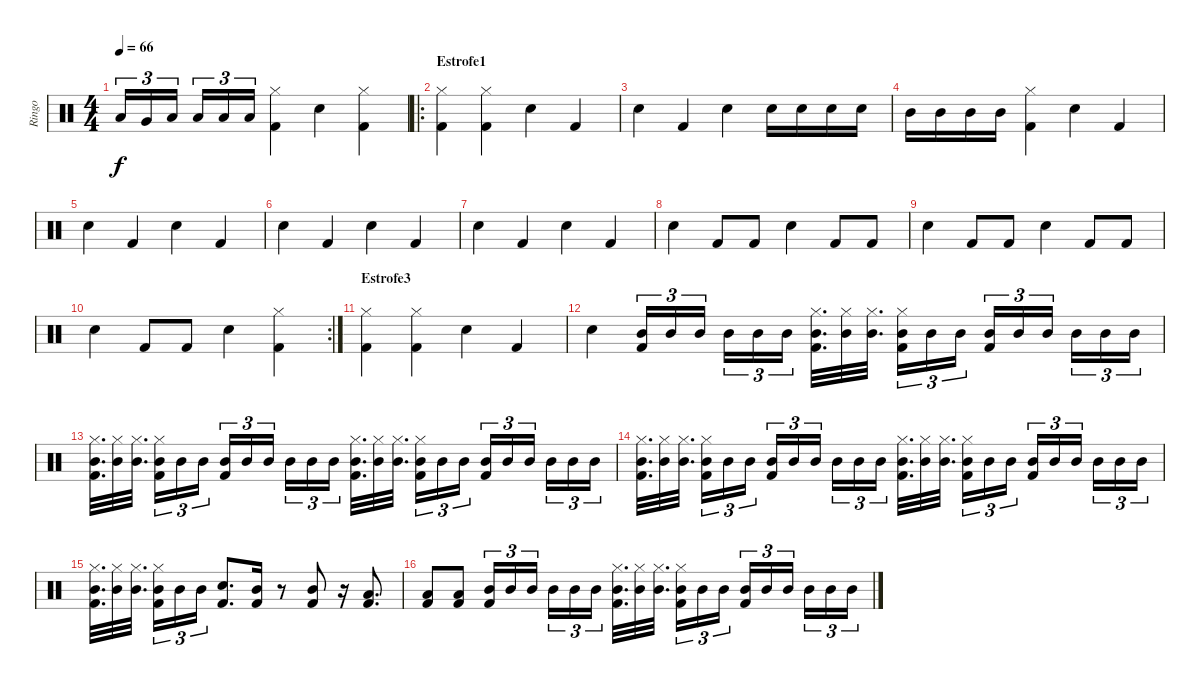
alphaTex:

\track ("Ringo" "Ringo") {instrument percussion}
\staff {score}
\articulation defaults
\ts (4 4)
\tempo 66
\clef neutral
\ks c "Low Floor Tom (hit)".16{tu (3 2) dy f} "Very Low Tom (hit)".16{tu (3 2)} "Low Tom (hit)".16{tu (3 2)} "Low Tom (hit)".16{tu (3 2)} "Low Tom (hit)".16{tu (3 2)} "Low Tom (hit)".16{tu (3 2)}
("Hi-Hat (closed)" "Kick (hit) 2").4 "Snare (hit) 2".4 ("Hi-Hat (closed)" "Kick (hit) 2").4 |
\ro
\section ("" "Estrofe1")
("Hi-Hat (closed)" "Kick (hit) 2").4 ("Hi-Hat (closed)" "Kick (hit) 2").4 "Snare (hit) 2".4 "Kick (hit) 2".4 |
"Snare (hit) 2".4 "Kick (hit) 2".4 "Snare (hit) 2".4 "Snare (hit) 2".16 "Snare (hit) 2".16 "Snare (hit) 2".16 "Snare (hit) 2".16 |
"Mid Tom (hit)".16 "Mid Tom (hit)".16 "Mid Tom (hit)".16 "Mid Tom (hit)".16 ("Hi-Hat (closed)" "Kick (hit) 2").4 "Snare (hit) 2".4 "Kick (hit) 2".4 |
"Snare (hit) 2".4 "Kick (hit) 2".4 "Snare (hit) 2".4 "Kick (hit) 2".4 |
"Snare (hit) 2".4 "Kick (hit) 2".4 "Snare (hit) 2".4 "Kick (hit) 2".4 |
"Snare (hit) 2".4 "Kick (hit) 2".4 "Snare (hit) 2".4 "Kick (hit) 2".4 |
"Snare (hit) 2".4 "Kick (hit) 2".8 "Kick (hit) 2".8 "Snare (hit) 2".4 "Kick (hit) 2".8 "Kick (hit) 2".8 |
"Snare (hit) 2".4 "Kick (hit) 2".8 "Kick (hit) 2".8 "Snare (hit) 2".4 "Kick (hit) 2".8 "Kick (hit) 2".8 |
\rc 2 "Snare (hit) 2".4 "Kick (hit) 2".8 "Kick (hit) 2".8 "Snare (hit) 2".4
("Hi-Hat (closed)" "Kick (hit) 2").4 |
\section ("" "Estrofe3")
("Hi-Hat (closed)" "Kick (hit) 2").4 ("Hi-Hat (closed)" "Kick (hit) 2").4 "Snare (hit) 2".4 "Kick (hit) 2".4 |
"Snare (hit) 2".4 ("Mid Tom (hit)" "Kick (hit) 2").16{tu (3 2)} "Mid Tom (hit)".16{tu (3 2)} "Mid Tom (hit)".16{tu (3 2)} "Mid Tom (hit)".16{tu (3 2)} "Mid Tom (hit)".16{tu (3 2)} "Mid Tom (hit)".16{tu (3 2)} ("Hi-Hat (closed)" "Mid Tom (hit)" "Kick (hit) 2").32{d} ("Hi-Hat (closed)" "Mid Tom (hit)").32 ("Hi-Hat (closed)" "Mid Tom (hit)").32{d} ("Hi-Hat (closed)" "Mid Tom (hit)" "Kick (hit) 2").16{tu (3 2)} "Mid Tom (hit)".16{tu (3 2)} "Mid Tom (hit)".16{tu (3 2)} ("Mid Tom (hit)" "Kick (hit) 2").16{tu (3 2)} "Mid Tom (hit)".16{tu (3 2)} "Mid Tom (hit)".16{tu (3 2)} "Mid Tom (hit)".16{tu (3 2)} "Mid Tom (hit)".16{tu (3 2)} "Mid Tom (hit)".16{tu (3 2)} |
("Hi-Hat (closed)" "Mid Tom (hit)" "Kick (hit) 2").32{d} ("Hi-Hat (closed)" "Mid Tom (hit)").32 ("Hi-Hat (closed)" "Mid Tom (hit)").32{d} ("Hi-Hat (closed)" "Mid Tom (hit)" "Kick (hit) 2").16{tu (3 2)} "Mid Tom (hit)".16{tu (3 2)} "Mid Tom (hit)".16{tu (3 2)} ("Mid Tom (hit)" "Kick (hit) 2").16{tu (3 2)} "Mid Tom (hit)".16{tu (3 2)} "Mid Tom (hit)".16{tu (3 2)} "Mid Tom (hit)".16{tu (3 2)} "Mid Tom (hit)".16{tu (3 2)} "Mid Tom (hit)".16{tu (3 2)} ("Hi-Hat (closed)" "Mid Tom (hit)" "Kick (hit) 2").32{d} ("Hi-Hat (closed)" "Mid Tom (hit)").32 ("Hi-Hat (closed)" "Mid Tom (hit)").32{d} ("Hi-Hat (closed)" "Mid Tom (hit)" "Kick (hit) 2").16{tu (3 2)} "Mid Tom (hit)".16{tu (3 2)} "Mid Tom (hit)".16{tu (3 2)} ("Mid Tom (hit)" "Kick (hit) 2").16{tu (3 2)} "Mid Tom (hit)".16{tu (3 2)} "Mid Tom (hit)".16{tu (3 2)} "Mid Tom (hit)".16{tu (3 2)} "Mid Tom (hit)".16{tu (3 2)} "Mid Tom (hit)".16{tu (3 2)} |
("Hi-Hat (closed)" "Mid Tom (hit)" "Kick (hit) 2").32{d} ("Hi-Hat (closed)" "Mid Tom (hit)").32 ("Hi-Hat (closed)" "Mid Tom (hit)").32{d} ("Hi-Hat (closed)" "Mid Tom (hit)" "Kick (hit) 2").16{tu (3 2)} "Mid Tom (hit)".16{tu (3 2)} "Mid Tom (hit)".16{tu (3 2)} ("Mid Tom (hit)" "Kick (hit) 2").16{tu (3 2)} "Mid Tom (hit)".16{tu (3 2)} "Mid Tom (hit)".16{tu (3 2)} "Mid Tom (hit)".16{tu (3 2)} "Mid Tom (hit)".16{tu (3 2)} "Mid Tom (hit)".16{tu (3 2)} ("Hi-Hat (closed)" "Mid Tom (hit)" "Kick (hit) 2").32{d} ("Hi-Hat (closed)" "Mid Tom (hit)").32 ("Hi-Hat (closed)" "Mid Tom (hit)").32{d} ("Hi-Hat (closed)" "Mid Tom (hit)" "Kick (hit) 2").16{tu (3 2)} "Mid Tom (hit)".16{tu (3 2)} "Mid Tom (hit)".16{tu (3 2)} ("Mid Tom (hit)" "Kick (hit) 2").16{tu (3 2)} "Mid Tom (hit)".16{tu (3 2)} "Mid Tom (hit)".16{tu (3 2)} "Mid Tom (hit)".16{tu (3 2)} "Mid Tom (hit)".16{tu (3 2)} "Mid Tom (hit)".16{tu (3 2)} |
("Hi-Hat (closed)" "Mid Tom (hit)" "Kick (hit) 2").32{d} ("Hi-Hat (closed)" "Mid Tom (hit)").32 ("Hi-Hat (closed)" "Mid Tom (hit)").32{d} ("Hi-Hat (closed)" "Mid Tom (hit)" "Kick (hit) 2").16{tu (3 2)} "Mid Tom (hit)".16{tu (3 2)} "Mid Tom (hit)".16{tu (3 2)} ("Snare (hit) 2" "Kick (hit) 2").8{d} ("Mid Tom (hit)" "Kick (hit) 2").16 r.8 ("Mid Tom (hit)" "Kick (hit) 2").8 r.16 ("Low Floor Tom (hit)" "Kick (hit) 2").8{d} |
("Low Floor Tom (hit)" "Kick (hit) 2").8 ("Low Floor Tom (hit)" "Kick (hit) 2").8 ("Mid Tom (hit)" "Kick (hit) 2").16{tu (3 2)} "Mid Tom (hit)".16{tu (3 2)} "Mid Tom (hit)".16{tu (3 2)} "Mid Tom (hit)".16{tu (3 2)} "Mid Tom (hit)".16{tu (3 2)} "Mid Tom (hit)".16{tu (3 2)} ("Hi-Hat (closed)" "Mid Tom (hit)" "Kick (hit) 2").32{d} ("Hi-Hat (closed)" "Mid Tom (hit)").32 ("Hi-Hat (closed)" "Mid Tom (hit)").32{d} ("Hi-Hat (closed)" "Mid Tom (hit)" "Kick (hit) 2").16{tu (3 2)} "Mid Tom (hit)".16{tu (3 2)} "Mid Tom (hit)".16{tu (3 2)} ("Mid Tom (hit)" "Kick (hit) 2").16{tu (3 2)} "Mid Tom (hit)".16{tu (3 2)} "Mid Tom (hit)".16{tu (3 2)} "Mid Tom (hit)".16{tu (3 2)} "Mid Tom (hit)".16{tu (3 2)} "Mid Tom (hit)".16{tu (3 2)}
